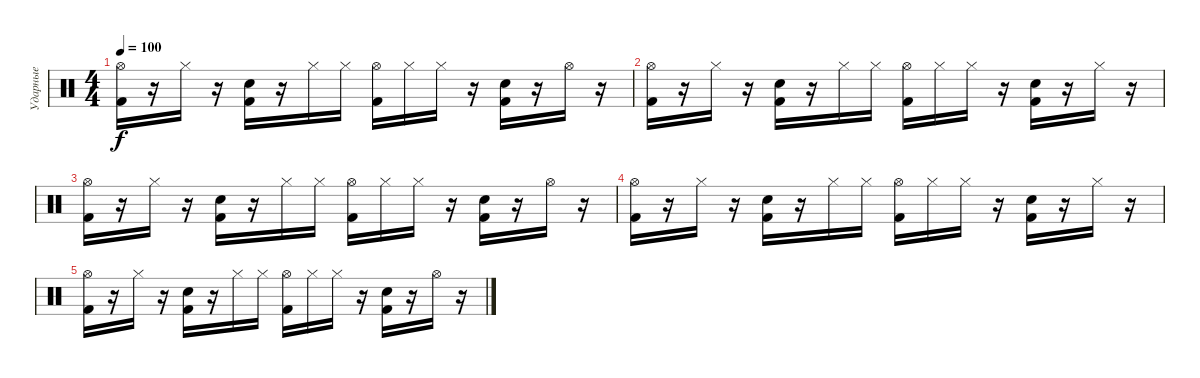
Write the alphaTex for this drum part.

\track ("Ударные" "Ударные") {instrument percussion}
\staff {score}
\articulation defaults
\ts (4 4)
\tempo 100
\clef neutral
\ks c
("Hi-Hat (open)" "Kick (hit) 2").16{dy f} r.16 "Hi-Hat (closed)".16 r.16 ("Snare (hit) 2" "Kick (hit) 2").16 r.16 "Hi-Hat (closed)".16 "Hi-Hat (closed)".16 ("Hi-Hat (open)" "Kick (hit) 2").16 "Hi-Hat (closed)".16 "Hi-Hat (closed)".16 r.16 ("Snare (hit) 2" "Kick (hit) 2").16 r.16 "Hi-Hat (open)".16 r.16 |
("Hi-Hat (open)" "Kick (hit) 2").16 r.16 "Hi-Hat (closed)".16 r.16 ("Snare (hit) 2" "Kick (hit) 2").16 r.16 "Hi-Hat (closed)".16 "Hi-Hat (closed)".16 ("Hi-Hat (open)" "Kick (hit) 2").16 "Hi-Hat (closed)".16 "Hi-Hat (closed)".16 r.16 ("Snare (hit) 2" "Kick (hit) 2").16 r.16 "Hi-Hat (closed)".16 r.16 |
("Hi-Hat (open)" "Kick (hit) 2").16 r.16 "Hi-Hat (closed)".16 r.16 ("Snare (hit) 2" "Kick (hit) 2").16 r.16 "Hi-Hat (closed)".16 "Hi-Hat (closed)".16 ("Hi-Hat (open)" "Kick (hit) 2").16 "Hi-Hat (closed)".16 "Hi-Hat (closed)".16 r.16 ("Snare (hit) 2" "Kick (hit) 2").16 r.16 "Hi-Hat (open)".16 r.16 |
("Hi-Hat (open)" "Kick (hit) 2").16 r.16 "Hi-Hat (closed)".16 r.16 ("Snare (hit) 2" "Kick (hit) 2").16 r.16 "Hi-Hat (closed)".16 "Hi-Hat (closed)".16 ("Hi-Hat (open)" "Kick (hit) 2").16 "Hi-Hat (closed)".16 "Hi-Hat (closed)".16 r.16 ("Snare (hit) 2" "Kick (hit) 2").16 r.16 "Hi-Hat (closed)".16 r.16 |
("Hi-Hat (open)" "Kick (hit) 2").16 r.16 "Hi-Hat (closed)".16 r.16 ("Snare (hit) 2" "Kick (hit) 2").16 r.16 "Hi-Hat (closed)".16 "Hi-Hat (closed)".16 ("Hi-Hat (open)" "Kick (hit) 2").16 "Hi-Hat (closed)".16 "Hi-Hat (closed)".16 r.16 ("Snare (hit) 2" "Kick (hit) 2").16 r.16 "Hi-Hat (open)".16 r.16
